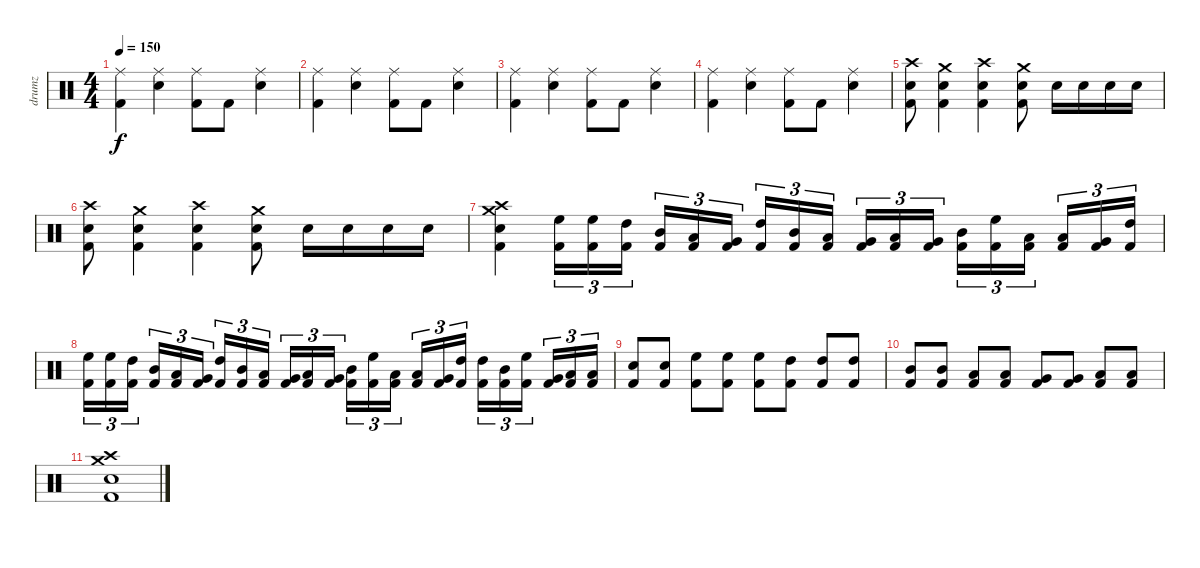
\track ("drumz" "drumz") {instrument percussion}
\staff {score}
\articulation defaults
\ts (4 4)
\tempo 150
\clef neutral
\ks c
("Ride (middle)" "Kick (hit) 2").4{dy f} ("Ride (middle)" "Electric Snare (hit)").4 ("Ride (middle)" "Kick (hit) 2").8 "Kick (hit) 2".8 ("Ride (middle)" "Electric Snare (hit)").4 |
("Ride (middle)" "Kick (hit) 2").4 ("Ride (middle)" "Electric Snare (hit)").4 ("Ride (middle)" "Kick (hit) 2").8 "Kick (hit) 2".8 ("Ride (middle)" "Electric Snare (hit)").4 |
("Ride (middle)" "Kick (hit) 2").4 ("Ride (middle)" "Electric Snare (hit)").4 ("Ride (middle)" "Kick (hit) 2").8 "Kick (hit) 2".8 ("Ride (middle)" "Electric Snare (hit)").4 |
("Ride (middle)" "Kick (hit) 2").4 ("Ride (middle)" "Electric Snare (hit)").4 ("Ride (middle)" "Kick (hit) 2").8 "Kick (hit) 2".8 ("Ride (middle)" "Electric Snare (hit)").4 |
("Crash high (hit)" "Electric Snare (hit)" "Kick (hit) 2").8 ("Crash medium (hit)" "Electric Snare (hit)" "Kick (hit) 2").4 ("Crash high (hit)" "Electric Snare (hit)" "Kick (hit) 2").4 ("Crash medium (hit)" "Electric Snare (hit)" "Kick (hit) 2").8 "Electric Snare (hit)".16 "Electric Snare (hit)".16 "Electric Snare (hit)".16 "Electric Snare (hit)".16 |
("Crash high (hit)" "Electric Snare (hit)" "Kick (hit) 2").8 ("Crash medium (hit)" "Electric Snare (hit)" "Kick (hit) 2").4 ("Crash high (hit)" "Electric Snare (hit)" "Kick (hit) 2").4 ("Crash medium (hit)" "Electric Snare (hit)" "Kick (hit) 2").8 "Electric Snare (hit)".16 "Electric Snare (hit)".16 "Electric Snare (hit)".16 "Electric Snare (hit)".16 |
("Crash medium (hit)" "Crash high (hit)" "Electric Snare (hit)" "Kick (hit) 2").4 ("High Floor Tom (hit)" "Kick (hit) 2").16{tu (3 2)} ("High Floor Tom (hit)" "Kick (hit) 2").16{tu (3 2)} ("High Tom (hit)" "Kick (hit) 2").16{tu (3 2) beam splitsecondary} ("Mid Tom (hit)" "Kick (hit) 2").16{tu (3 2)} ("Low Tom (hit)" "Kick (hit) 2").16{tu (3 2)} ("Very Low Tom (hit)" "Kick (hit) 2").16{tu (3 2)} ("High Tom (hit)" "Kick (hit) 2").16{tu (3 2)} ("Mid Tom (hit)" "Kick (hit) 2").16{tu (3 2)} ("Low Tom (hit)" "Kick (hit) 2").16{tu (3 2) beam splitsecondary} ("Very Low Tom (hit)" "Kick (hit) 2").16{tu (3 2)} ("Low Floor Tom (hit)" "Kick (hit) 2").16{tu (3 2)} ("Very Low Tom (hit)" "Kick (hit) 2").16{tu (3 2)} ("Mid Tom (hit)" "Kick (hit) 2").16{tu (3 2)} ("High Floor Tom (hit)" "Kick (hit) 2").16{tu (3 2)} ("Low Floor Tom (hit)" "Kick (hit) 2").16{tu (3 2) beam splitsecondary} ("Low Tom (hit)" "Kick (hit) 2").16{tu (3 2)} ("Very Low Tom (hit)" "Kick (hit) 2").16{tu (3 2)} ("High Tom (hit)" "Kick (hit) 2").16{tu (3 2)} |
("High Floor Tom (hit)" "Kick (hit) 2").16{tu (3 2)} ("High Floor Tom (hit)" "Kick (hit) 2").16{tu (3 2)} ("High Tom (hit)" "Kick (hit) 2").16{tu (3 2) beam splitsecondary} ("Mid Tom (hit)" "Kick (hit) 2").16{tu (3 2)} ("Low Tom (hit)" "Kick (hit) 2").16{tu (3 2)} ("Very Low Tom (hit)" "Kick (hit) 2").16{tu (3 2)} ("High Tom (hit)" "Kick (hit) 2").16{tu (3 2)} ("Mid Tom (hit)" "Kick (hit) 2").16{tu (3 2)} ("Low Tom (hit)" "Kick (hit) 2").16{tu (3 2) beam splitsecondary} ("Very Low Tom (hit)" "Kick (hit) 2").16{tu (3 2)} ("Low Floor Tom (hit)" "Kick (hit) 2").16{tu (3 2)} ("Very Low Tom (hit)" "Kick (hit) 2").16{tu (3 2)} ("Mid Tom (hit)" "Kick (hit) 2").16{tu (3 2)} ("High Floor Tom (hit)" "Kick (hit) 2").16{tu (3 2)} ("Low Floor Tom (hit)" "Kick (hit) 2").16{tu (3 2) beam splitsecondary} ("Low Tom (hit)" "Kick (hit) 2").16{tu (3 2)} ("Very Low Tom (hit)" "Kick (hit) 2").16{tu (3 2)} ("High Tom (hit)" "Kick (hit) 2").16{tu (3 2)} ("High Tom (hit)" "Kick (hit) 2").16{tu (3 2)} ("Mid Tom (hit)" "Kick (hit) 2").16{tu (3 2)} ("High Floor Tom (hit)" "Kick (hit) 2").16{tu (3 2) beam splitsecondary} ("Very Low Tom (hit)" "Kick (hit) 2").16{tu (3 2)} ("Low Floor Tom (hit)" "Kick (hit) 2").16{tu (3 2)} ("Low Tom (hit)" "Kick (hit) 2").16{tu (3 2)} |
("Electric Snare (hit)" "Kick (hit) 2").8 ("Electric Snare (hit)" "Kick (hit) 2").8 ("High Floor Tom (hit)" "Kick (hit) 2").8 ("High Floor Tom (hit)" "Kick (hit) 2").8 ("High Floor Tom (hit)" "Kick (hit) 2").8 ("High Tom (hit)" "Kick (hit) 2").8 ("High Tom (hit)" "Kick (hit) 2").8 ("High Tom (hit)" "Kick (hit) 2").8 |
("Mid Tom (hit)" "Kick (hit) 2").8 ("Mid Tom (hit)" "Kick (hit) 2").8 ("Low Tom (hit)" "Kick (hit) 2").8 ("Low Tom (hit)" "Kick (hit) 2").8 ("Very Low Tom (hit)" "Kick (hit) 2").8 ("Very Low Tom (hit)" "Kick (hit) 2").8 ("Low Floor Tom (hit)" "Kick (hit) 2").8 ("Low Floor Tom (hit)" "Kick (hit) 2").8 |
("Crash medium (hit)" "Crash high (hit)" "Electric Snare (hit)" "Kick (hit) 2").1
